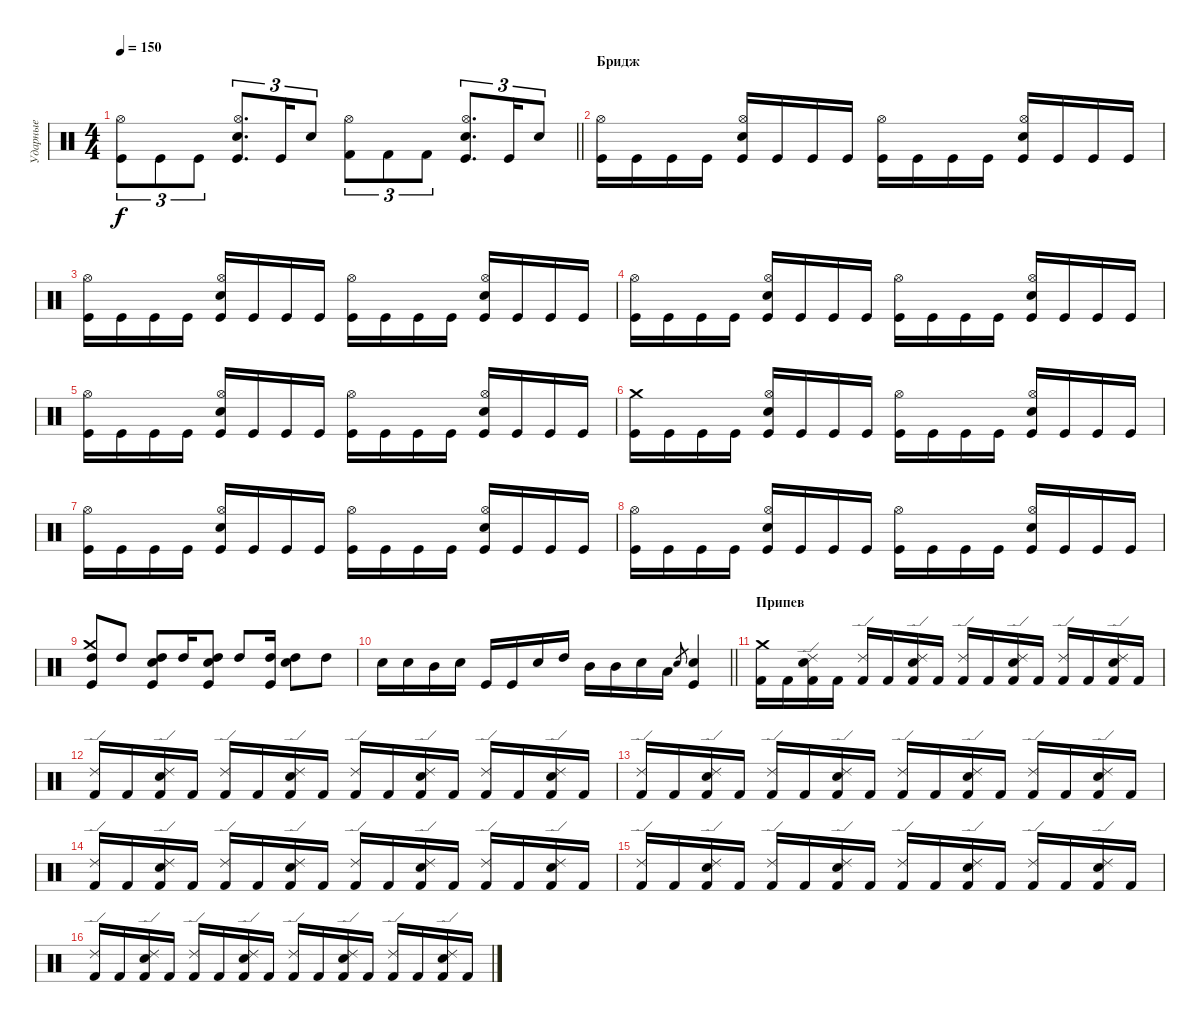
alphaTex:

\track ("Ударные" "Ударные") {instrument percussion}
\staff {score}
\articulation defaults
\ts (4 4)
\tempo 150
\clef neutral
\barLineRight lightlight
\ks c
("Kick (hit)" "Hi-Hat (open)").8{tu (3 2) dy f} "Kick (hit)".8{tu (3 2)} "Kick (hit)".8{tu (3 2)} ("Electric Snare (hit)" "Hi-Hat (open)" "Kick (hit)").8{d tu (3 2)} "Kick (hit)".16{tu (3 2)} "Electric Snare (hit)".8{tu (3 2)} ("Kick (hit) 2" "Hi-Hat (open)").8{tu (3 2)} "Kick (hit) 2".8{tu (3 2)} "Kick (hit) 2".8{tu (3 2)} ("Electric Snare (hit)" "Hi-Hat (open)" "Kick (hit)").8{d tu (3 2)} "Kick (hit)".16{tu (3 2)} "Electric Snare (hit)".8{tu (3 2)} |
\section ("" "Бридж")
("Kick (hit)" "Hi-Hat (open)").16 "Kick (hit)".16 "Kick (hit)".16 "Kick (hit)".16 ("Kick (hit)" "Electric Snare (hit)" "Hi-Hat (open)").16 "Kick (hit)".16 "Kick (hit)".16 "Kick (hit)".16 ("Kick (hit)" "Hi-Hat (open)").16 "Kick (hit)".16 "Kick (hit)".16 "Kick (hit)".16 ("Kick (hit)" "Electric Snare (hit)" "Hi-Hat (open)").16 "Kick (hit)".16 "Kick (hit)".16 "Kick (hit)".16 |
("Kick (hit)" "Hi-Hat (open)").16 "Kick (hit)".16 "Kick (hit)".16 "Kick (hit)".16 ("Kick (hit)" "Electric Snare (hit)" "Hi-Hat (open)").16 "Kick (hit)".16 "Kick (hit)".16 "Kick (hit)".16 ("Kick (hit)" "Hi-Hat (open)").16 "Kick (hit)".16 "Kick (hit)".16 "Kick (hit)".16 ("Kick (hit)" "Electric Snare (hit)" "Hi-Hat (open)").16 "Kick (hit)".16 "Kick (hit)".16 "Kick (hit)".16 |
("Kick (hit)" "Hi-Hat (open)").16 "Kick (hit)".16 "Kick (hit)".16 "Kick (hit)".16 ("Kick (hit)" "Electric Snare (hit)" "Hi-Hat (open)").16 "Kick (hit)".16 "Kick (hit)".16 "Kick (hit)".16 ("Kick (hit)" "Hi-Hat (open)").16 "Kick (hit)".16 "Kick (hit)".16 "Kick (hit)".16 ("Kick (hit)" "Electric Snare (hit)" "Hi-Hat (open)").16 "Kick (hit)".16 "Kick (hit)".16 "Kick (hit)".16 |
("Kick (hit)" "Hi-Hat (open)").16 "Kick (hit)".16 "Kick (hit)".16 "Kick (hit)".16 ("Kick (hit)" "Electric Snare (hit)" "Hi-Hat (open)").16 "Kick (hit)".16 "Kick (hit)".16 "Kick (hit)".16 ("Kick (hit)" "Hi-Hat (open)").16 "Kick (hit)".16 "Kick (hit)".16 "Kick (hit)".16 ("Kick (hit)" "Electric Snare (hit)" "Hi-Hat (open)").16 "Kick (hit)".16 "Kick (hit)".16 "Kick (hit)".16 |
("Kick (hit)" "Crash medium (hit)").16 "Kick (hit)".16 "Kick (hit)".16 "Kick (hit)".16 ("Kick (hit)" "Electric Snare (hit)" "Hi-Hat (open)").16 "Kick (hit)".16 "Kick (hit)".16 "Kick (hit)".16 ("Kick (hit)" "Hi-Hat (open)").16 "Kick (hit)".16 "Kick (hit)".16 "Kick (hit)".16 ("Kick (hit)" "Electric Snare (hit)" "Hi-Hat (open)").16 "Kick (hit)".16 "Kick (hit)".16 "Kick (hit)".16 |
("Kick (hit)" "Hi-Hat (open)").16 "Kick (hit)".16 "Kick (hit)".16 "Kick (hit)".16 ("Kick (hit)" "Electric Snare (hit)" "Hi-Hat (open)").16 "Kick (hit)".16 "Kick (hit)".16 "Kick (hit)".16 ("Kick (hit)" "Hi-Hat (open)").16 "Kick (hit)".16 "Kick (hit)".16 "Kick (hit)".16 ("Kick (hit)" "Electric Snare (hit)" "Hi-Hat (open)").16 "Kick (hit)".16 "Kick (hit)".16 "Kick (hit)".16 |
("Kick (hit)" "Hi-Hat (open)").16 "Kick (hit)".16 "Kick (hit)".16 "Kick (hit)".16 ("Kick (hit)" "Electric Snare (hit)" "Hi-Hat (open)").16 "Kick (hit)".16 "Kick (hit)".16 "Kick (hit)".16 ("Kick (hit)" "Hi-Hat (open)").16 "Kick (hit)".16 "Kick (hit)".16 "Kick (hit)".16 ("Kick (hit)" "Electric Snare (hit)" "Hi-Hat (open)").16 "Kick (hit)".16 "Kick (hit)".16 "Kick (hit)".16 |
("High Tom (hit)" "Crash medium (hit)" "Kick (hit)").8 "High Tom (hit)".8 ("High Tom (hit)" "Electric Snare (hit)" "Kick (hit)").8 "High Tom (hit)".16 ("High Tom (hit)" "Electric Snare (hit)" "Kick (hit)").8 "High Tom (hit)".8 ("High Tom (hit)" "Kick (hit)").16 ("High Tom (hit)" "Electric Snare (hit)").8 "High Tom (hit)".8 |
\barLineRight lightlight "Electric Snare (hit)".16 "Electric Snare (hit)".16 "Mid Tom (hit)".16 "Electric Snare (hit)".16 "Kick (hit)".16 "Kick (hit)".16 "Electric Snare (hit)".16 "High Tom (hit)".16 "Mid Tom (hit)".16 "Mid Tom (hit)".16 "Electric Snare (hit)".16 "Low Tom (hit)".16 "Electric Snare (hit)".8{gr}
("Electric Snare (hit)" "Kick (hit)").4 |
\section ("" "Припев")
("Kick (hit) 2" "Crash medium (hit)").16 "Kick (hit) 2".16 ("Kick (hit) 2" "Electric Snare (hit)" "Ride (edge) 2").16 "Kick (hit) 2".16 ("Kick (hit) 2" "Ride (edge) 2").16 "Kick (hit) 2".16 ("Kick (hit) 2" "Electric Snare (hit)" "Ride (edge) 2").16 "Kick (hit) 2".16 ("Kick (hit) 2" "Ride (edge) 2").16 "Kick (hit) 2".16 ("Kick (hit) 2" "Electric Snare (hit)" "Ride (edge) 2").16 "Kick (hit) 2".16 ("Kick (hit) 2" "Ride (edge) 2").16 "Kick (hit) 2".16 ("Kick (hit) 2" "Electric Snare (hit)" "Ride (edge) 2").16 "Kick (hit) 2".16 |
("Kick (hit) 2" "Ride (edge) 2").16 "Kick (hit) 2".16 ("Kick (hit) 2" "Electric Snare (hit)" "Ride (edge) 2").16 "Kick (hit) 2".16 ("Kick (hit) 2" "Ride (edge) 2").16 "Kick (hit) 2".16 ("Kick (hit) 2" "Electric Snare (hit)" "Ride (edge) 2").16 "Kick (hit) 2".16 ("Kick (hit) 2" "Ride (edge) 2").16 "Kick (hit) 2".16 ("Kick (hit) 2" "Electric Snare (hit)" "Ride (edge) 2").16 "Kick (hit) 2".16 ("Kick (hit) 2" "Ride (edge) 2").16 "Kick (hit) 2".16 ("Kick (hit) 2" "Electric Snare (hit)" "Ride (edge) 2").16 "Kick (hit) 2".16 |
("Kick (hit) 2" "Ride (edge) 2").16 "Kick (hit) 2".16 ("Kick (hit) 2" "Electric Snare (hit)" "Ride (edge) 2").16 "Kick (hit) 2".16 ("Kick (hit) 2" "Ride (edge) 2").16 "Kick (hit) 2".16 ("Kick (hit) 2" "Electric Snare (hit)" "Ride (edge) 2").16 "Kick (hit) 2".16 ("Kick (hit) 2" "Ride (edge) 2").16 "Kick (hit) 2".16 ("Kick (hit) 2" "Electric Snare (hit)" "Ride (edge) 2").16 "Kick (hit) 2".16 ("Kick (hit) 2" "Ride (edge) 2").16 "Kick (hit) 2".16 ("Kick (hit) 2" "Electric Snare (hit)" "Ride (edge) 2").16 "Kick (hit) 2".16 |
("Kick (hit) 2" "Ride (edge) 2").16 "Kick (hit) 2".16 ("Kick (hit) 2" "Electric Snare (hit)" "Ride (edge) 2").16 "Kick (hit) 2".16 ("Kick (hit) 2" "Ride (edge) 2").16 "Kick (hit) 2".16 ("Kick (hit) 2" "Electric Snare (hit)" "Ride (edge) 2").16 "Kick (hit) 2".16 ("Kick (hit) 2" "Ride (edge) 2").16 "Kick (hit) 2".16 ("Kick (hit) 2" "Electric Snare (hit)" "Ride (edge) 2").16 "Kick (hit) 2".16 ("Kick (hit) 2" "Ride (edge) 2").16 "Kick (hit) 2".16 ("Kick (hit) 2" "Electric Snare (hit)" "Ride (edge) 2").16 "Kick (hit) 2".16 |
("Kick (hit) 2" "Ride (edge) 2").16 "Kick (hit) 2".16 ("Kick (hit) 2" "Electric Snare (hit)" "Ride (edge) 2").16 "Kick (hit) 2".16 ("Kick (hit) 2" "Ride (edge) 2").16 "Kick (hit) 2".16 ("Kick (hit) 2" "Electric Snare (hit)" "Ride (edge) 2").16 "Kick (hit) 2".16 ("Kick (hit) 2" "Ride (edge) 2").16 "Kick (hit) 2".16 ("Kick (hit) 2" "Electric Snare (hit)" "Ride (edge) 2").16 "Kick (hit) 2".16 ("Kick (hit) 2" "Ride (edge) 2").16 "Kick (hit) 2".16 ("Kick (hit) 2" "Electric Snare (hit)" "Ride (edge) 2").16 "Kick (hit) 2".16 |
("Kick (hit) 2" "Ride (edge) 2").16 "Kick (hit) 2".16 ("Kick (hit) 2" "Electric Snare (hit)" "Ride (edge) 2").16 "Kick (hit) 2".16 ("Kick (hit) 2" "Ride (edge) 2").16 "Kick (hit) 2".16 ("Kick (hit) 2" "Electric Snare (hit)" "Ride (edge) 2").16 "Kick (hit) 2".16 ("Kick (hit) 2" "Ride (edge) 2").16 "Kick (hit) 2".16 ("Kick (hit) 2" "Electric Snare (hit)" "Ride (edge) 2").16 "Kick (hit) 2".16 ("Kick (hit) 2" "Ride (edge) 2").16 "Kick (hit) 2".16 ("Kick (hit) 2" "Electric Snare (hit)" "Ride (edge) 2").16 "Kick (hit) 2".16
